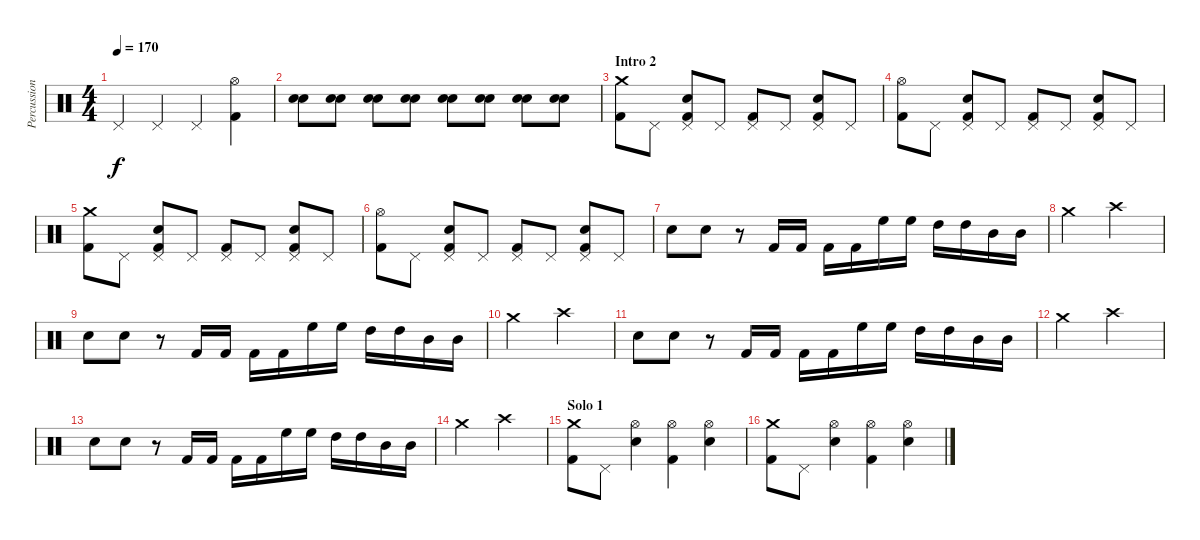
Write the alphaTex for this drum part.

\track ("Percussion" "Percussion") {instrument percussion}
\staff {score}
\articulation defaults
\ts (4 4)
\tempo 170
\clef neutral
\ks c "Pedal Hi-Hat (hit)".4{dy f} "Pedal Hi-Hat (hit)".4 "Pedal Hi-Hat (hit)".4
("Hi-Hat (open)" "Kick (hit) 2").4 |
("Electric Snare (hit)" "Electric Snare (hit)").8 ("Electric Snare (hit)" "Electric Snare (hit)").8 ("Electric Snare (hit)" "Electric Snare (hit)").8 ("Electric Snare (hit)" "Electric Snare (hit)").8 ("Electric Snare (hit)" "Electric Snare (hit)").8 ("Electric Snare (hit)" "Electric Snare (hit)").8 ("Electric Snare (hit)" "Electric Snare (hit)").8 ("Electric Snare (hit)" "Electric Snare (hit)").8 |
\section ("" "Intro 2")
("Crash medium (hit)" "Kick (hit) 2").8 "Pedal Hi-Hat (hit)".8 ("Pedal Hi-Hat (hit)" "Electric Snare (hit)" "Kick (hit) 2").8 "Pedal Hi-Hat (hit)".8 ("Pedal Hi-Hat (hit)" "Kick (hit) 2").8 "Pedal Hi-Hat (hit)".8 ("Pedal Hi-Hat (hit)" "Electric Snare (hit)" "Kick (hit) 2").8 "Pedal Hi-Hat (hit)".8 |
("Hi-Hat (open)" "Kick (hit) 2").8 "Pedal Hi-Hat (hit)".8 ("Pedal Hi-Hat (hit)" "Electric Snare (hit)" "Kick (hit) 2").8 "Pedal Hi-Hat (hit)".8 ("Pedal Hi-Hat (hit)" "Kick (hit) 2").8 "Pedal Hi-Hat (hit)".8 ("Pedal Hi-Hat (hit)" "Electric Snare (hit)" "Kick (hit) 2").8 "Pedal Hi-Hat (hit)".8 |
("Crash medium (hit)" "Kick (hit) 2").8 "Pedal Hi-Hat (hit)".8 ("Pedal Hi-Hat (hit)" "Electric Snare (hit)" "Kick (hit) 2").8 "Pedal Hi-Hat (hit)".8 ("Pedal Hi-Hat (hit)" "Kick (hit) 2").8 "Pedal Hi-Hat (hit)".8 ("Pedal Hi-Hat (hit)" "Electric Snare (hit)" "Kick (hit) 2").8 "Pedal Hi-Hat (hit)".8 |
("Hi-Hat (open)" "Kick (hit) 2").8 "Pedal Hi-Hat (hit)".8 ("Pedal Hi-Hat (hit)" "Electric Snare (hit)" "Kick (hit) 2").8 "Pedal Hi-Hat (hit)".8 ("Pedal Hi-Hat (hit)" "Kick (hit) 2").8 "Pedal Hi-Hat (hit)".8 ("Pedal Hi-Hat (hit)" "Electric Snare (hit)" "Kick (hit) 2").8 "Pedal Hi-Hat (hit)".8 |
"Electric Snare (hit)".8 "Electric Snare (hit)".8 r.8 "Kick (hit) 2".16 "Kick (hit) 2".16 "Kick (hit) 2".16 "Kick (hit) 2".16 "High Floor Tom (hit)".16 "High Floor Tom (hit)".16 "High Tom (hit)".16 "High Tom (hit)".16 "Mid Tom (hit)".16 "Mid Tom (hit)".16 |
"Crash medium (hit)".2 "Crash high (hit)".2 |
"Electric Snare (hit)".8 "Electric Snare (hit)".8 r.8 "Kick (hit) 2".16 "Kick (hit) 2".16 "Kick (hit) 2".16 "Kick (hit) 2".16 "High Floor Tom (hit)".16 "High Floor Tom (hit)".16 "High Tom (hit)".16 "High Tom (hit)".16 "Mid Tom (hit)".16 "Mid Tom (hit)".16 |
"Crash medium (hit)".2 "Crash high (hit)".2 |
"Electric Snare (hit)".8 "Electric Snare (hit)".8 r.8 "Kick (hit) 2".16 "Kick (hit) 2".16 "Kick (hit) 2".16 "Kick (hit) 2".16 "High Floor Tom (hit)".16 "High Floor Tom (hit)".16 "High Tom (hit)".16 "High Tom (hit)".16 "Mid Tom (hit)".16 "Mid Tom (hit)".16 |
"Crash medium (hit)".2 "Crash high (hit)".2 |
"Electric Snare (hit)".8 "Electric Snare (hit)".8 r.8 "Kick (hit) 2".16 "Kick (hit) 2".16 "Kick (hit) 2".16 "Kick (hit) 2".16 "High Floor Tom (hit)".16 "High Floor Tom (hit)".16 "High Tom (hit)".16 "High Tom (hit)".16 "Mid Tom (hit)".16 "Mid Tom (hit)".16 |
"Crash medium (hit)".2 "Crash high (hit)".2 |
\section ("" "Solo 1")
("Crash medium (hit)" "Kick (hit) 2").8 "Pedal Hi-Hat (hit)".8 ("Hi-Hat (open)" "Electric Snare (hit)").4 ("Hi-Hat (open)" "Kick (hit) 2").4 ("Hi-Hat (open)" "Electric Snare (hit)").4 |
("Crash medium (hit)" "Kick (hit) 2").8 "Pedal Hi-Hat (hit)".8 ("Hi-Hat (open)" "Electric Snare (hit)").4 ("Hi-Hat (open)" "Kick (hit) 2").4 ("Hi-Hat (open)" "Electric Snare (hit)").4
